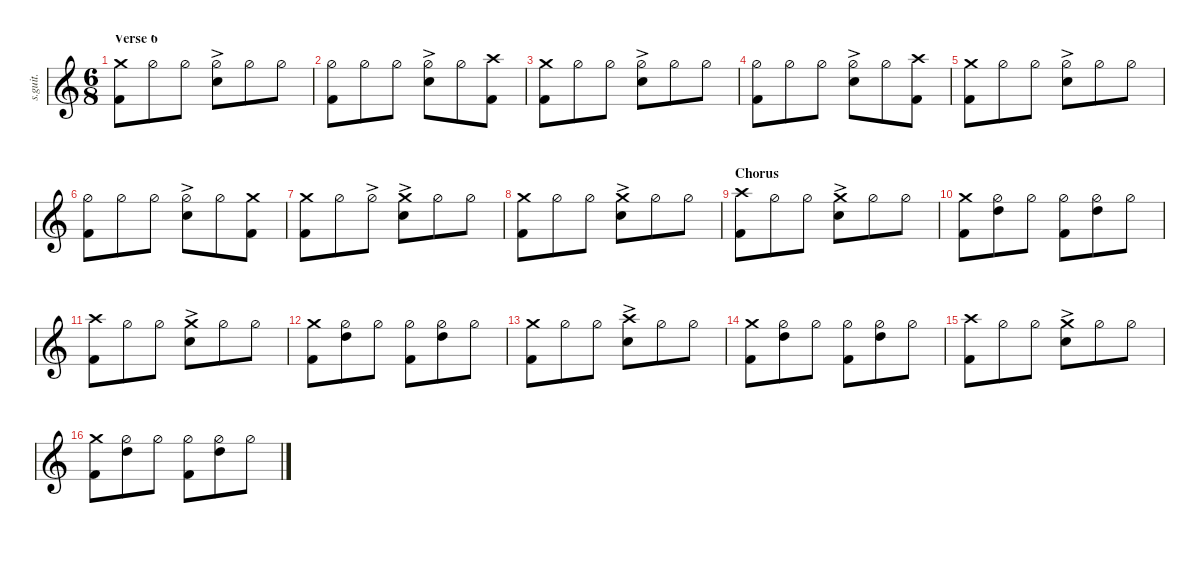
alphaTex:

\defaultSystemsLayout 4
\hideDynamics
\bracketExtendMode nobrackets
\track ("Lars Ulrich - Drums" "s.guit.") {instrument percussion}
\staff {score}
\articulation defaults
\ts (6 8)
\section ("" "Verse 6")
\tempo (71 hide)
\clef g2
\ks c
("Crash medium (hit)" "Kick (hit) 2").8{lyrics (0 "") lyrics (1 "") lyrics (2 "") lyrics (3 "") lyrics (4 "") dy ff} "Hi-Hat (half)".8{lyrics (0 "") lyrics (1 "") lyrics (2 "") lyrics (3 "") lyrics (4 "")} "Hi-Hat (half)".8{lyrics (0 "") lyrics (1 "") lyrics (2 "") lyrics (3 "") lyrics (4 "")} ("Hi-Hat (half)"{ac} "Snare (hit) 2"{ac}).8{lyrics (0 "") lyrics (1 "") lyrics (2 "") lyrics (3 "") lyrics (4 "")} "Hi-Hat (half)".8{lyrics (0 "") lyrics (1 "") lyrics (2 "") lyrics (3 "") lyrics (4 "")} "Hi-Hat (half)".8{lyrics (0 "") lyrics (1 "") lyrics (2 "") lyrics (3 "") lyrics (4 "")} |
("Hi-Hat (half)" "Kick (hit) 2").8{lyrics (0 "") lyrics (1 "") lyrics (2 "") lyrics (3 "") lyrics (4 "")} "Hi-Hat (half)".8{lyrics (0 "") lyrics (1 "") lyrics (2 "") lyrics (3 "") lyrics (4 "")} "Hi-Hat (half)".8{lyrics (0 "") lyrics (1 "") lyrics (2 "") lyrics (3 "") lyrics (4 "")} ("Hi-Hat (half)"{ac} "Snare (hit) 2"{ac}).8{lyrics (0 "") lyrics (1 "") lyrics (2 "") lyrics (3 "") lyrics (4 "")} "Hi-Hat (half)".8{lyrics (0 "") lyrics (1 "") lyrics (2 "") lyrics (3 "") lyrics (4 "")} ("Crash high (hit)" "Kick (hit) 2").8{lyrics (0 "") lyrics (1 "") lyrics (2 "") lyrics (3 "") lyrics (4 "")} |
("Crash medium (hit)" "Kick (hit) 2").8{lyrics (0 "") lyrics (1 "") lyrics (2 "") lyrics (3 "") lyrics (4 "")} "Hi-Hat (half)".8{lyrics (0 "") lyrics (1 "") lyrics (2 "") lyrics (3 "") lyrics (4 "")} "Hi-Hat (half)".8{lyrics (0 "") lyrics (1 "") lyrics (2 "") lyrics (3 "") lyrics (4 "")} ("Hi-Hat (half)"{ac} "Snare (hit) 2"{ac}).8{lyrics (0 "") lyrics (1 "") lyrics (2 "") lyrics (3 "") lyrics (4 "")} "Hi-Hat (half)".8{lyrics (0 "") lyrics (1 "") lyrics (2 "") lyrics (3 "") lyrics (4 "")} "Hi-Hat (half)".8{lyrics (0 "") lyrics (1 "") lyrics (2 "") lyrics (3 "") lyrics (4 "")} |
("Hi-Hat (half)" "Kick (hit) 2").8{lyrics (0 "") lyrics (1 "") lyrics (2 "") lyrics (3 "") lyrics (4 "")} "Hi-Hat (half)".8{lyrics (0 "") lyrics (1 "") lyrics (2 "") lyrics (3 "") lyrics (4 "")} "Hi-Hat (half)".8{lyrics (0 "") lyrics (1 "") lyrics (2 "") lyrics (3 "") lyrics (4 "")} ("Hi-Hat (half)"{ac} "Snare (hit) 2"{ac}).8{lyrics (0 "") lyrics (1 "") lyrics (2 "") lyrics (3 "") lyrics (4 "")} "Hi-Hat (half)".8{lyrics (0 "") lyrics (1 "") lyrics (2 "") lyrics (3 "") lyrics (4 "")} ("Crash high (hit)" "Kick (hit) 2").8{lyrics (0 "") lyrics (1 "") lyrics (2 "") lyrics (3 "") lyrics (4 "")} |
("Crash medium (hit)" "Kick (hit) 2").8{lyrics (0 "") lyrics (1 "") lyrics (2 "") lyrics (3 "") lyrics (4 "")} "Hi-Hat (half)".8{lyrics (0 "") lyrics (1 "") lyrics (2 "") lyrics (3 "") lyrics (4 "")} "Hi-Hat (half)".8{lyrics (0 "") lyrics (1 "") lyrics (2 "") lyrics (3 "") lyrics (4 "")} ("Hi-Hat (half)"{ac} "Snare (hit) 2"{ac}).8{lyrics (0 "") lyrics (1 "") lyrics (2 "") lyrics (3 "") lyrics (4 "")} "Hi-Hat (half)".8{lyrics (0 "") lyrics (1 "") lyrics (2 "") lyrics (3 "") lyrics (4 "")} "Hi-Hat (half)".8{lyrics (0 "") lyrics (1 "") lyrics (2 "") lyrics (3 "") lyrics (4 "")} |
("Hi-Hat (half)" "Kick (hit) 2").8{lyrics (0 "") lyrics (1 "") lyrics (2 "") lyrics (3 "") lyrics (4 "")} "Hi-Hat (half)".8{lyrics (0 "") lyrics (1 "") lyrics (2 "") lyrics (3 "") lyrics (4 "")} "Hi-Hat (half)".8{lyrics (0 "") lyrics (1 "") lyrics (2 "") lyrics (3 "") lyrics (4 "")} ("Hi-Hat (half)"{ac} "Snare (hit) 2"{ac}).8{lyrics (0 "") lyrics (1 "") lyrics (2 "") lyrics (3 "") lyrics (4 "")} "Hi-Hat (half)".8{lyrics (0 "") lyrics (1 "") lyrics (2 "") lyrics (3 "") lyrics (4 "")} ("Crash medium (hit)" "Kick (hit) 2").8{lyrics (0 "") lyrics (1 "") lyrics (2 "") lyrics (3 "") lyrics (4 "")} |
("Crash medium (hit)" "Kick (hit) 2").8{lyrics (0 "") lyrics (1 "") lyrics (2 "") lyrics (3 "") lyrics (4 "")} "Hi-Hat (half)".8{lyrics (0 "") lyrics (1 "") lyrics (2 "") lyrics (3 "") lyrics (4 "")} "Hi-Hat (half)"{ac}.8{lyrics (0 "") lyrics (1 "") lyrics (2 "") lyrics (3 "") lyrics (4 "")} ("Crash medium (hit)"{ac} "Snare (hit) 2"{ac}).8{lyrics (0 "") lyrics (1 "") lyrics (2 "") lyrics (3 "") lyrics (4 "")} "Hi-Hat (half)".8{lyrics (0 "") lyrics (1 "") lyrics (2 "") lyrics (3 "") lyrics (4 "")} "Hi-Hat (half)".8{lyrics (0 "") lyrics (1 "") lyrics (2 "") lyrics (3 "") lyrics (4 "")} |
("Crash medium (hit)" "Kick (hit) 2").8{lyrics (0 "") lyrics (1 "") lyrics (2 "") lyrics (3 "") lyrics (4 "")} "Hi-Hat (half)".8{lyrics (0 "") lyrics (1 "") lyrics (2 "") lyrics (3 "") lyrics (4 "")} "Hi-Hat (half)".8{lyrics (0 "") lyrics (1 "") lyrics (2 "") lyrics (3 "") lyrics (4 "")} ("Crash medium (hit)"{ac} "Snare (hit) 2"{ac}).8{lyrics (0 "") lyrics (1 "") lyrics (2 "") lyrics (3 "") lyrics (4 "")} "Hi-Hat (half)".8{lyrics (0 "") lyrics (1 "") lyrics (2 "") lyrics (3 "") lyrics (4 "")} "Hi-Hat (half)".8{lyrics (0 "") lyrics (1 "") lyrics (2 "") lyrics (3 "") lyrics (4 "")} |
\section ("" "Chorus")
("Crash high (hit)" "Kick (hit) 2").8{lyrics (0 "") lyrics (1 "") lyrics (2 "") lyrics (3 "") lyrics (4 "")} "Hi-Hat (half)".8{lyrics (0 "") lyrics (1 "") lyrics (2 "") lyrics (3 "") lyrics (4 "")} "Hi-Hat (half)".8{lyrics (0 "") lyrics (1 "") lyrics (2 "") lyrics (3 "") lyrics (4 "")} ("Crash medium (hit)"{ac} "Snare (hit) 2"{ac}).8{lyrics (0 "") lyrics (1 "") lyrics (2 "") lyrics (3 "") lyrics (4 "")} "Hi-Hat (half)".8{lyrics (0 "") lyrics (1 "") lyrics (2 "") lyrics (3 "") lyrics (4 "")} "Hi-Hat (half)".8{lyrics (0 "") lyrics (1 "") lyrics (2 "") lyrics (3 "") lyrics (4 "")} |
("Crash medium (hit)" "Kick (hit) 2").8{lyrics (0 "") lyrics (1 "") lyrics (2 "") lyrics (3 "") lyrics (4 "")} ("Hi-Hat (half)" "High Tom (hit)").8{lyrics (0 "") lyrics (1 "") lyrics (2 "") lyrics (3 "") lyrics (4 "")} "Hi-Hat (half)".8{lyrics (0 "") lyrics (1 "") lyrics (2 "") lyrics (3 "") lyrics (4 "")} ("Hi-Hat (half)" "Kick (hit) 2").8{lyrics (0 "") lyrics (1 "") lyrics (2 "") lyrics (3 "") lyrics (4 "")} ("Hi-Hat (half)" "High Tom (hit)").8{lyrics (0 "") lyrics (1 "") lyrics (2 "") lyrics (3 "") lyrics (4 "")} "Hi-Hat (half)".8{lyrics (0 "") lyrics (1 "") lyrics (2 "") lyrics (3 "") lyrics (4 "")} |
("Crash high (hit)" "Kick (hit) 2").8{lyrics (0 "") lyrics (1 "") lyrics (2 "") lyrics (3 "") lyrics (4 "")} "Hi-Hat (half)".8{lyrics (0 "") lyrics (1 "") lyrics (2 "") lyrics (3 "") lyrics (4 "")} "Hi-Hat (half)".8{lyrics (0 "") lyrics (1 "") lyrics (2 "") lyrics (3 "") lyrics (4 "")} ("Crash medium (hit)"{ac} "Snare (hit) 2"{ac}).8{lyrics (0 "") lyrics (1 "") lyrics (2 "") lyrics (3 "") lyrics (4 "")} "Hi-Hat (half)".8{lyrics (0 "") lyrics (1 "") lyrics (2 "") lyrics (3 "") lyrics (4 "")} "Hi-Hat (half)".8{lyrics (0 "") lyrics (1 "") lyrics (2 "") lyrics (3 "") lyrics (4 "")} |
("Crash medium (hit)" "Kick (hit) 2").8{lyrics (0 "") lyrics (1 "") lyrics (2 "") lyrics (3 "") lyrics (4 "")} ("Hi-Hat (half)" "High Tom (hit)").8{lyrics (0 "") lyrics (1 "") lyrics (2 "") lyrics (3 "") lyrics (4 "")} "Hi-Hat (half)".8{lyrics (0 "") lyrics (1 "") lyrics (2 "") lyrics (3 "") lyrics (4 "")} ("Hi-Hat (half)" "Kick (hit) 2").8{lyrics (0 "") lyrics (1 "") lyrics (2 "") lyrics (3 "") lyrics (4 "")} ("Hi-Hat (half)" "High Tom (hit)").8{lyrics (0 "") lyrics (1 "") lyrics (2 "") lyrics (3 "") lyrics (4 "")} "Hi-Hat (half)".8{lyrics (0 "") lyrics (1 "") lyrics (2 "") lyrics (3 "") lyrics (4 "")} |
("Crash medium (hit)" "Kick (hit) 2").8{lyrics (0 "") lyrics (1 "") lyrics (2 "") lyrics (3 "") lyrics (4 "")} "Hi-Hat (half)".8{lyrics (0 "") lyrics (1 "") lyrics (2 "") lyrics (3 "") lyrics (4 "")} "Hi-Hat (half)".8{lyrics (0 "") lyrics (1 "") lyrics (2 "") lyrics (3 "") lyrics (4 "")} ("Crash high (hit)"{ac} "Snare (hit) 2"{ac}).8{lyrics (0 "") lyrics (1 "") lyrics (2 "") lyrics (3 "") lyrics (4 "")} "Hi-Hat (half)".8{lyrics (0 "") lyrics (1 "") lyrics (2 "") lyrics (3 "") lyrics (4 "")} "Hi-Hat (half)".8{lyrics (0 "") lyrics (1 "") lyrics (2 "") lyrics (3 "") lyrics (4 "")} |
("Crash medium (hit)" "Kick (hit) 2").8{lyrics (0 "") lyrics (1 "") lyrics (2 "") lyrics (3 "") lyrics (4 "")} ("Hi-Hat (half)" "High Tom (hit)").8{lyrics (0 "") lyrics (1 "") lyrics (2 "") lyrics (3 "") lyrics (4 "")} "Hi-Hat (half)".8{lyrics (0 "") lyrics (1 "") lyrics (2 "") lyrics (3 "") lyrics (4 "")} ("Hi-Hat (half)" "Kick (hit) 2").8{lyrics (0 "") lyrics (1 "") lyrics (2 "") lyrics (3 "") lyrics (4 "")} ("Hi-Hat (half)" "High Tom (hit)").8{lyrics (0 "") lyrics (1 "") lyrics (2 "") lyrics (3 "") lyrics (4 "")} "Hi-Hat (half)".8{lyrics (0 "") lyrics (1 "") lyrics (2 "") lyrics (3 "") lyrics (4 "")} |
("Crash high (hit)" "Kick (hit) 2").8{lyrics (0 "") lyrics (1 "") lyrics (2 "") lyrics (3 "") lyrics (4 "")} "Hi-Hat (half)".8{lyrics (0 "") lyrics (1 "") lyrics (2 "") lyrics (3 "") lyrics (4 "")} "Hi-Hat (half)".8{lyrics (0 "") lyrics (1 "") lyrics (2 "") lyrics (3 "") lyrics (4 "")} ("Crash medium (hit)"{ac} "Snare (hit) 2"{ac}).8{lyrics (0 "") lyrics (1 "") lyrics (2 "") lyrics (3 "") lyrics (4 "")} "Hi-Hat (half)".8{lyrics (0 "") lyrics (1 "") lyrics (2 "") lyrics (3 "") lyrics (4 "")} "Hi-Hat (half)".8{lyrics (0 "") lyrics (1 "") lyrics (2 "") lyrics (3 "") lyrics (4 "")} |
("Crash medium (hit)" "Kick (hit) 2").8{lyrics (0 "") lyrics (1 "") lyrics (2 "") lyrics (3 "") lyrics (4 "")} ("Hi-Hat (half)" "High Tom (hit)").8{lyrics (0 "") lyrics (1 "") lyrics (2 "") lyrics (3 "") lyrics (4 "")} "Hi-Hat (half)".8{lyrics (0 "") lyrics (1 "") lyrics (2 "") lyrics (3 "") lyrics (4 "")} ("Hi-Hat (half)" "Kick (hit) 2").8{lyrics (0 "") lyrics (1 "") lyrics (2 "") lyrics (3 "") lyrics (4 "")} ("Hi-Hat (half)" "High Tom (hit)").8{lyrics (0 "") lyrics (1 "") lyrics (2 "") lyrics (3 "") lyrics (4 "")} "Hi-Hat (half)".8{lyrics (0 "") lyrics (1 "") lyrics (2 "") lyrics (3 "") lyrics (4 "")}
